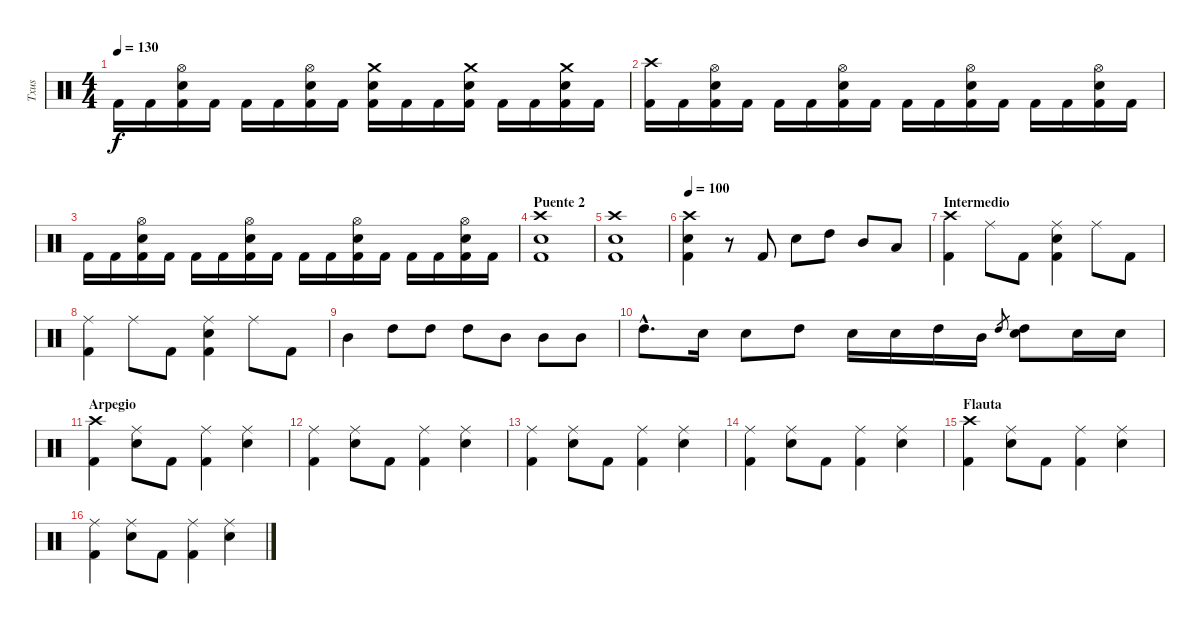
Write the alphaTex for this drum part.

\track ("Txus" "Txus") {instrument percussion}
\staff {score}
\articulation defaults
\ts (4 4)
\tempo 130
\clef neutral
\ks c "Kick (hit) 2".16{dy f} "Kick (hit) 2".16
("Kick (hit) 2" "Electric Snare (hit)" "Hi-Hat (open)").16 "Kick (hit) 2".16 "Kick (hit) 2".16 "Kick (hit) 2".16 ("Kick (hit) 2" "Electric Snare (hit)" "Hi-Hat (open)").16 "Kick (hit) 2".16 ("Kick (hit) 2" "Electric Snare (hit)" "Crash medium (hit)").16 "Kick (hit) 2".16 "Kick (hit) 2".16 ("Kick (hit) 2" "Electric Snare (hit)" "Crash medium (hit)").16 "Kick (hit) 2".16 "Kick (hit) 2".16 ("Kick (hit) 2" "Electric Snare (hit)" "Crash medium (hit)").16 "Kick (hit) 2".16 |
("Kick (hit) 2" "Crash high (hit)").16 "Kick (hit) 2".16 ("Kick (hit) 2" "Electric Snare (hit)" "Hi-Hat (open)").16 "Kick (hit) 2".16 "Kick (hit) 2".16 "Kick (hit) 2".16 ("Kick (hit) 2" "Electric Snare (hit)" "Hi-Hat (open)").16 "Kick (hit) 2".16 "Kick (hit) 2".16 "Kick (hit) 2".16 ("Kick (hit) 2" "Electric Snare (hit)" "Hi-Hat (open)").16 "Kick (hit) 2".16 "Kick (hit) 2".16 "Kick (hit) 2".16 ("Kick (hit) 2" "Electric Snare (hit)" "Hi-Hat (open)").16 "Kick (hit) 2".16 |
"Kick (hit) 2".16 "Kick (hit) 2".16 ("Kick (hit) 2" "Electric Snare (hit)" "Hi-Hat (open)").16 "Kick (hit) 2".16 "Kick (hit) 2".16 "Kick (hit) 2".16 ("Kick (hit) 2" "Electric Snare (hit)" "Hi-Hat (open)").16 "Kick (hit) 2".16 "Kick (hit) 2".16 "Kick (hit) 2".16 ("Kick (hit) 2" "Electric Snare (hit)" "Hi-Hat (open)").16 "Kick (hit) 2".16 "Kick (hit) 2".16 "Kick (hit) 2".16 ("Kick (hit) 2" "Electric Snare (hit)" "Hi-Hat (open)").16 "Kick (hit) 2".16 |
\section ("" "Puente 2")
("Kick (hit) 2" "Electric Snare (hit)" "Crash high (hit)").1 |
("Kick (hit) 2" "Electric Snare (hit)" "Crash high (hit)").1 |
\tempo 100
("Kick (hit) 2" "Electric Snare (hit)" "Crash high (hit)").4 r.8 "Kick (hit) 2".8 "Electric Snare (hit)".8 "High Tom (hit)".8 "Mid Tom (hit)".8 "Low Tom (hit)".8 |
\section ("" "Intermedio")
("Kick (hit) 2" "Crash high (hit)").4 "Ride (middle)".8 "Kick (hit) 2".8 ("Kick (hit) 2" "Electric Snare (hit)" "Ride (middle)").4 "Ride (middle)".8 "Kick (hit) 2".8 |
("Kick (hit) 2" "Ride (middle)").4 "Ride (middle)".8 "Kick (hit) 2".8 ("Kick (hit) 2" "Electric Snare (hit)" "Ride (middle)").4 "Ride (middle)".8 "Kick (hit) 2".8 |
"Mid Tom (hit)".4 "High Tom (hit)".8 "High Tom (hit)".8 "High Tom (hit)".8 "Mid Tom (hit)".8 "Mid Tom (hit)".8 "Mid Tom (hit)".8 |
"High Tom (hit)"{hac}.8{d} "Electric Snare (hit)".16 "Electric Snare (hit)".8 "High Tom (hit)".8 "Electric Snare (hit)".16 "Electric Snare (hit)".16 "High Tom (hit)".16 "Mid Tom (hit)".16 "High Tom (hit)".8{gr} ("Electric Snare (hit)" "High Tom (hit)").8 "Electric Snare (hit)".16 "Electric Snare (hit)".16 |
\section ("" "Arpegio")
("Kick (hit) 2" "Crash high (hit)").4{volume 12} ("Electric Snare (hit)" "Ride (middle)").8 "Kick (hit) 2".8 ("Kick (hit) 2" "Ride (middle)").4 ("Electric Snare (hit)" "Ride (middle)").4 |
("Kick (hit) 2" "Ride (middle)").4 ("Electric Snare (hit)" "Ride (middle)").8 "Kick (hit) 2".8 ("Kick (hit) 2" "Ride (middle)").4 ("Electric Snare (hit)" "Ride (middle)").4 |
("Kick (hit) 2" "Ride (middle)").4 ("Electric Snare (hit)" "Ride (middle)").8 "Kick (hit) 2".8 ("Kick (hit) 2" "Ride (middle)").4 ("Electric Snare (hit)" "Ride (middle)").4 |
("Kick (hit) 2" "Ride (middle)").4 ("Electric Snare (hit)" "Ride (middle)").8 "Kick (hit) 2".8 ("Kick (hit) 2" "Ride (middle)").4 ("Electric Snare (hit)" "Ride (middle)").4 |
\section ("" "Flauta")
("Kick (hit) 2" "Crash high (hit)").4 ("Electric Snare (hit)" "Ride (middle)").8 "Kick (hit) 2".8 ("Kick (hit) 2" "Ride (middle)").4 ("Electric Snare (hit)" "Ride (middle)").4 |
("Kick (hit) 2" "Ride (middle)").4 ("Electric Snare (hit)" "Ride (middle)").8 "Kick (hit) 2".8 ("Kick (hit) 2" "Ride (middle)").4 ("Electric Snare (hit)" "Ride (middle)").4
